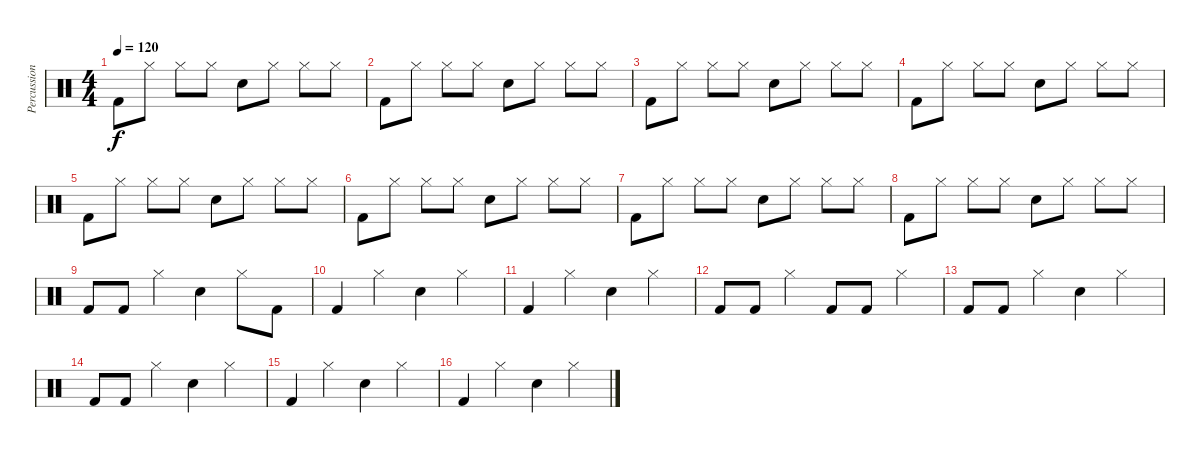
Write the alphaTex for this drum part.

\track ("Percussions" "Percussion") {instrument percussion}
\staff {score}
\articulation defaults
\ts (4 4)
\tempo 120
\clef neutral
\ks c "Kick (hit) 2".8{dy f} "Hi-Hat (closed)".8 "Hi-Hat (closed)".8 "Hi-Hat (closed)".8 "Electric Snare (hit)".8 "Hi-Hat (closed)".8 "Hi-Hat (closed)".8 "Hi-Hat (closed)".8
|
"Kick (hit) 2".8 "Hi-Hat (closed)".8 "Hi-Hat (closed)".8 "Hi-Hat (closed)".8 "Electric Snare (hit)".8 "Hi-Hat (closed)".8 "Hi-Hat (closed)".8 "Hi-Hat (closed)".8 |
"Kick (hit) 2".8 "Hi-Hat (closed)".8 "Hi-Hat (closed)".8 "Hi-Hat (closed)".8 "Electric Snare (hit)".8 "Hi-Hat (closed)".8 "Hi-Hat (closed)".8 "Hi-Hat (closed)".8 |
"Kick (hit) 2".8 "Hi-Hat (closed)".8 "Hi-Hat (closed)".8 "Hi-Hat (closed)".8 "Electric Snare (hit)".8 "Hi-Hat (closed)".8 "Hi-Hat (closed)".8 "Hi-Hat (closed)".8 |
"Kick (hit) 2".8 "Hi-Hat (closed)".8 "Hi-Hat (closed)".8 "Hi-Hat (closed)".8 "Electric Snare (hit)".8 "Hi-Hat (closed)".8 "Hi-Hat (closed)".8 "Hi-Hat (closed)".8 |
"Kick (hit) 2".8 "Hi-Hat (closed)".8 "Hi-Hat (closed)".8 "Hi-Hat (closed)".8 "Electric Snare (hit)".8 "Hi-Hat (closed)".8 "Hi-Hat (closed)".8 "Hi-Hat (closed)".8 |
"Kick (hit) 2".8 "Hi-Hat (closed)".8 "Hi-Hat (closed)".8 "Hi-Hat (closed)".8 "Electric Snare (hit)".8 "Hi-Hat (closed)".8 "Hi-Hat (closed)".8 "Hi-Hat (closed)".8 |
"Kick (hit) 2".8 "Hi-Hat (closed)".8 "Hi-Hat (closed)".8 "Hi-Hat (closed)".8 "Electric Snare (hit)".8 "Hi-Hat (closed)".8 "Hi-Hat (closed)".8 "Hi-Hat (closed)".8 |
"Kick (hit) 2".8 "Kick (hit) 2".8 "Hi-Hat (closed)".4 "Electric Snare (hit)".4 "Hi-Hat (closed)".8 "Kick (hit) 2".8 |
"Kick (hit) 2".4 "Hi-Hat (closed)".4 "Electric Snare (hit)".4 "Hi-Hat (closed)".4 |
"Kick (hit) 2".4 "Hi-Hat (closed)".4 "Electric Snare (hit)".4 "Hi-Hat (closed)".4 |
"Kick (hit) 2".8 "Kick (hit) 2".8 "Hi-Hat (closed)".4 "Kick (hit) 2".8 "Kick (hit) 2".8 "Hi-Hat (closed)".4 |
"Kick (hit) 2".8 "Kick (hit) 2".8 "Hi-Hat (closed)".4 "Electric Snare (hit)".4 "Hi-Hat (closed)".4 |
"Kick (hit) 2".8 "Kick (hit) 2".8 "Hi-Hat (closed)".4 "Electric Snare (hit)".4 "Hi-Hat (closed)".4 |
"Kick (hit) 2".4 "Hi-Hat (closed)".4 "Electric Snare (hit)".4 "Hi-Hat (closed)".4 |
"Kick (hit) 2".4 "Hi-Hat (closed)".4 "Electric Snare (hit)".4 "Hi-Hat (closed)".4
